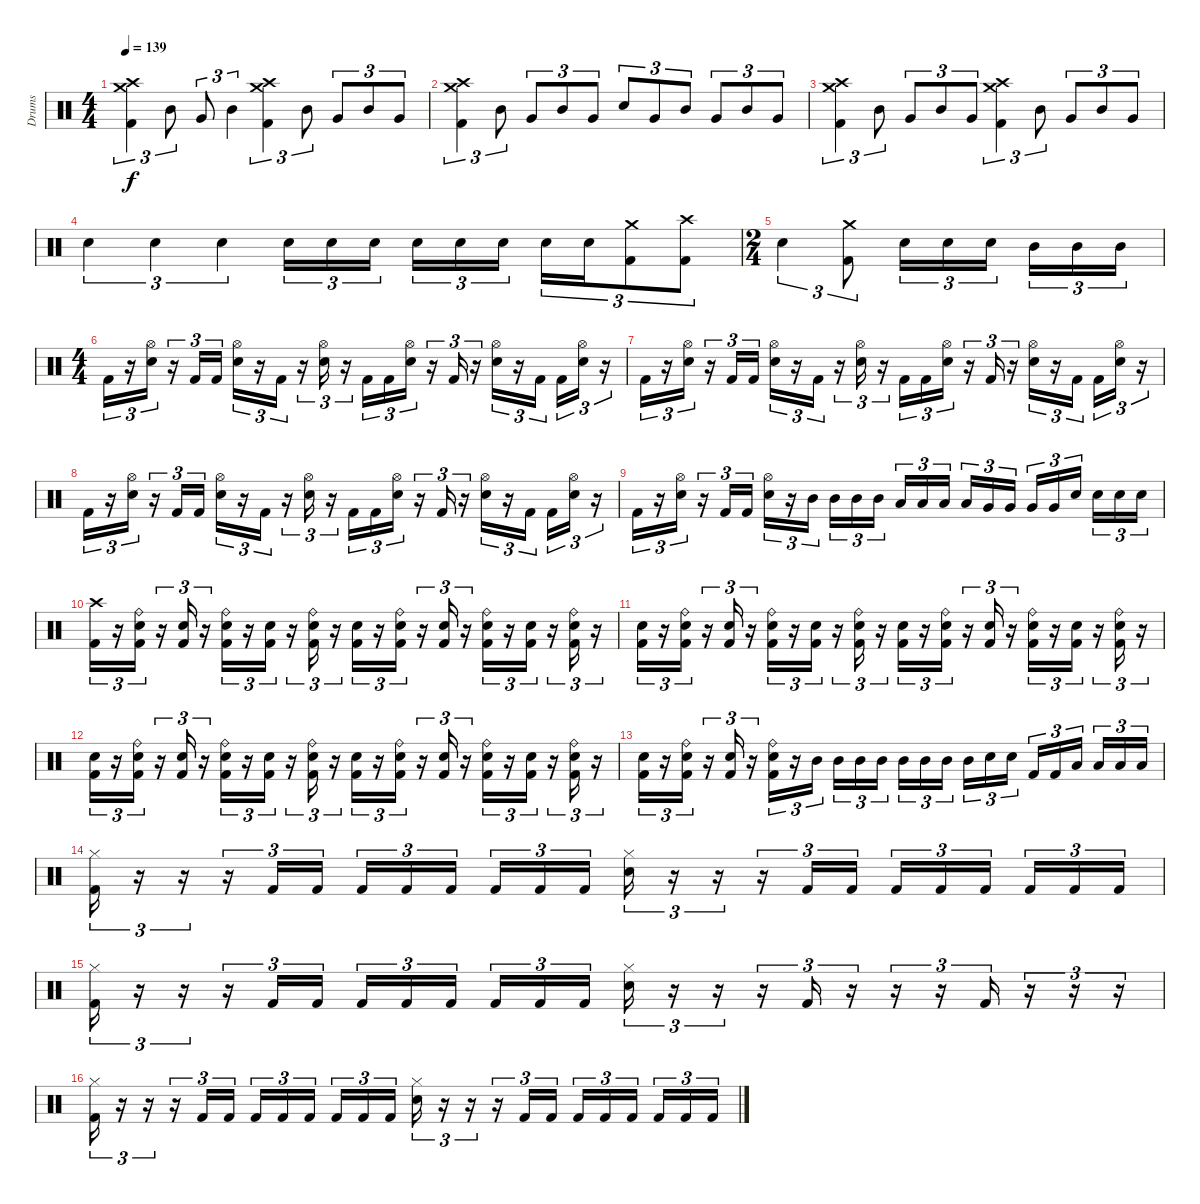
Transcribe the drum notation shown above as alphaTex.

\track ("Drums" "Drums") {instrument percussion}
\staff {score}
\articulation defaults
\ts (4 4)
\tempo 139
\clef neutral
\ks c
("Kick (hit) 2" "Crash high (hit)" "Crash medium (hit)").4{tu (3 2) dy f} "Mid Tom (hit)".8{tu (3 2)} "Very Low Tom (hit)".8{tu (3 2)} "Mid Tom (hit)".4{tu (3 2)} ("Kick (hit) 2" "Crash high (hit)" "Crash medium (hit)").4{tu (3 2)} "Mid Tom (hit)".8{tu (3 2)} "Very Low Tom (hit)".8{tu (3 2)} "Mid Tom (hit)".8{tu (3 2)} "Very Low Tom (hit)".8{tu (3 2)} |
("Kick (hit) 2" "Crash high (hit)" "Crash medium (hit)").4{tu (3 2)} "Mid Tom (hit)".8{tu (3 2)} "Very Low Tom (hit)".8{tu (3 2)} "Mid Tom (hit)".8{tu (3 2)} "Very Low Tom (hit)".8{tu (3 2)} "Snare (hit) 2".8{tu (3 2)} "Very Low Tom (hit)".8{tu (3 2)} "Mid Tom (hit)".8{tu (3 2)} "Very Low Tom (hit)".8{tu (3 2)} "Mid Tom (hit)".8{tu (3 2)} "Very Low Tom (hit)".8{tu (3 2)} |
("Kick (hit) 2" "Crash high (hit)" "Crash medium (hit)").4{tu (3 2)} "Mid Tom (hit)".8{tu (3 2)} "Very Low Tom (hit)".8{tu (3 2)} "Mid Tom (hit)".8{tu (3 2)} "Very Low Tom (hit)".8{tu (3 2)} ("Kick (hit) 2" "Crash high (hit)" "Crash medium (hit)").4{tu (3 2)} "Mid Tom (hit)".8{tu (3 2)} "Very Low Tom (hit)".8{tu (3 2)} "Mid Tom (hit)".8{tu (3 2)} "Very Low Tom (hit)".8{tu (3 2)} |
"Snare (hit) 2".4{tu (3 2)} "Snare (hit) 2".4{tu (3 2)} "Snare (hit) 2".4{tu (3 2)} "Snare (hit) 2".16{tu (3 2)} "Snare (hit) 2".16{tu (3 2)} "Snare (hit) 2".16{tu (3 2) beam splitsecondary} "Snare (hit) 2".16{tu (3 2)} "Snare (hit) 2".16{tu (3 2)} "Snare (hit) 2".16{tu (3 2)} "Snare (hit) 2".16{tu (3 2)} "Snare (hit) 2".16{tu (3 2)} ("Kick (hit) 2" "Crash medium (hit)").8{tu (3 2)} ("Kick (hit) 2" "Crash high (hit)").8{tu (3 2)} |
\ts (2 4)
"Snare (hit) 2".4{tu (3 2)} ("Kick (hit) 2" "Crash medium (hit)").8{tu (3 2)} "Snare (hit) 2".16{tu (3 2)} "Snare (hit) 2".16{tu (3 2)} "Snare (hit) 2".16{tu (3 2) beam splitsecondary} "Mid Tom (hit)".16{tu (3 2)} "Mid Tom (hit)".16{tu (3 2)} "Mid Tom (hit)".16{tu (3 2)} |
\ts (4 4)
"Kick (hit) 2".16{tu (3 2)} r.16{tu (3 2)} ("Snare (hit) 2" "Hi-Hat (open)").16{tu (3 2)} r.16{tu (3 2)} "Kick (hit) 2".16{tu (3 2)} "Kick (hit) 2".16{tu (3 2)} ("Snare (hit) 2" "Hi-Hat (open)").16{tu (3 2)} r.16{tu (3 2)} "Kick (hit) 2".16{tu (3 2)} r.16{tu (3 2)} ("Snare (hit) 2" "Hi-Hat (open)").16{tu (3 2)} r.16{tu (3 2)} "Kick (hit) 2".16{tu (3 2)} "Kick (hit) 2".16{tu (3 2)} ("Snare (hit) 2" "Hi-Hat (open)").16{tu (3 2)} r.16{tu (3 2)} "Kick (hit) 2".16{tu (3 2)} r.16{tu (3 2)} ("Snare (hit) 2" "Hi-Hat (open)").16{tu (3 2)} r.16{tu (3 2)} "Kick (hit) 2".16{tu (3 2) beam splitsecondary} "Kick (hit) 2".16{tu (3 2)} ("Snare (hit) 2" "Hi-Hat (open)").16{tu (3 2)} r.16{tu (3 2)} |
"Kick (hit) 2".16{tu (3 2)} r.16{tu (3 2)} ("Snare (hit) 2" "Hi-Hat (open)").16{tu (3 2)} r.16{tu (3 2)} "Kick (hit) 2".16{tu (3 2)} "Kick (hit) 2".16{tu (3 2)} ("Snare (hit) 2" "Hi-Hat (open)").16{tu (3 2)} r.16{tu (3 2)} "Kick (hit) 2".16{tu (3 2)} r.16{tu (3 2)} ("Snare (hit) 2" "Hi-Hat (open)").16{tu (3 2)} r.16{tu (3 2)} "Kick (hit) 2".16{tu (3 2)} "Kick (hit) 2".16{tu (3 2)} ("Snare (hit) 2" "Hi-Hat (open)").16{tu (3 2)} r.16{tu (3 2)} "Kick (hit) 2".16{tu (3 2)} r.16{tu (3 2)} ("Snare (hit) 2" "Hi-Hat (open)").16{tu (3 2)} r.16{tu (3 2)} "Kick (hit) 2".16{tu (3 2) beam splitsecondary} "Kick (hit) 2".16{tu (3 2)} ("Snare (hit) 2" "Hi-Hat (open)").16{tu (3 2)} r.16{tu (3 2)} |
"Kick (hit) 2".16{tu (3 2)} r.16{tu (3 2)} ("Snare (hit) 2" "Hi-Hat (open)").16{tu (3 2)} r.16{tu (3 2)} "Kick (hit) 2".16{tu (3 2)} "Kick (hit) 2".16{tu (3 2)} ("Snare (hit) 2" "Hi-Hat (open)").16{tu (3 2)} r.16{tu (3 2)} "Kick (hit) 2".16{tu (3 2)} r.16{tu (3 2)} ("Snare (hit) 2" "Hi-Hat (open)").16{tu (3 2)} r.16{tu (3 2)} "Kick (hit) 2".16{tu (3 2)} "Kick (hit) 2".16{tu (3 2)} ("Snare (hit) 2" "Hi-Hat (open)").16{tu (3 2)} r.16{tu (3 2)} "Kick (hit) 2".16{tu (3 2)} r.16{tu (3 2)} ("Snare (hit) 2" "Hi-Hat (open)").16{tu (3 2)} r.16{tu (3 2)} "Kick (hit) 2".16{tu (3 2) beam splitsecondary} "Kick (hit) 2".16{tu (3 2)} ("Snare (hit) 2" "Hi-Hat (open)").16{tu (3 2)} r.16{tu (3 2)} |
"Kick (hit) 2".16{tu (3 2)} r.16{tu (3 2)} ("Snare (hit) 2" "Hi-Hat (open)").16{tu (3 2)} r.16{tu (3 2)} "Kick (hit) 2".16{tu (3 2)} "Kick (hit) 2".16{tu (3 2)} ("Snare (hit) 2" "Hi-Hat (open)").16{tu (3 2)} r.16{tu (3 2)} "Mid Tom (hit)".16{tu (3 2) beam splitsecondary} "Mid Tom (hit)".16{tu (3 2)} "Mid Tom (hit)".16{tu (3 2)} "Mid Tom (hit)".16{tu (3 2)} "Low Tom (hit)".16{tu (3 2)} "Low Tom (hit)".16{tu (3 2)} "Low Tom (hit)".16{tu (3 2) beam splitsecondary} "Low Tom (hit)".16{tu (3 2)} "Very Low Tom (hit)".16{tu (3 2)} "Very Low Tom (hit)".16{tu (3 2)} "Very Low Tom (hit)".16{tu (3 2)} "Very Low Tom (hit)".16{tu (3 2)} "Snare (hit) 2".16{tu (3 2) beam splitsecondary} "Snare (hit) 2".16{tu (3 2)} "Snare (hit) 2".16{tu (3 2)} "Snare (hit) 2".16{tu (3 2)} |
("Kick (hit) 2" "Crash high (hit)").16{tu (3 2)} r.16{tu (3 2)} ("Kick (hit) 2" "Snare (hit) 2" "Ride (bell)").16{tu (3 2)} r.16{tu (3 2)} ("Kick (hit) 2" "Snare (hit) 2").16{tu (3 2)} r.16{tu (3 2)} ("Kick (hit) 2" "Snare (hit) 2" "Ride (bell)").16{tu (3 2)} r.16{tu (3 2)} ("Kick (hit) 2" "Snare (hit) 2").16{tu (3 2)} r.16{tu (3 2)} ("Kick (hit) 2" "Snare (hit) 2" "Ride (bell)").16{tu (3 2)} r.16{tu (3 2)} ("Kick (hit) 2" "Snare (hit) 2").16{tu (3 2)} r.16{tu (3 2)} ("Kick (hit) 2" "Snare (hit) 2" "Ride (bell)").16{tu (3 2)} r.16{tu (3 2)} ("Kick (hit) 2" "Snare (hit) 2").16{tu (3 2)} r.16{tu (3 2)} ("Kick (hit) 2" "Snare (hit) 2" "Ride (bell)").16{tu (3 2)} r.16{tu (3 2)} ("Kick (hit) 2" "Snare (hit) 2").16{tu (3 2)} r.16{tu (3 2)} ("Kick (hit) 2" "Snare (hit) 2" "Ride (bell)").16{tu (3 2)} r.16{tu (3 2)} |
("Kick (hit) 2" "Snare (hit) 2").16{tu (3 2)} r.16{tu (3 2)} ("Kick (hit) 2" "Snare (hit) 2" "Ride (bell)").16{tu (3 2)} r.16{tu (3 2)} ("Kick (hit) 2" "Snare (hit) 2").16{tu (3 2)} r.16{tu (3 2)} ("Kick (hit) 2" "Snare (hit) 2" "Ride (bell)").16{tu (3 2)} r.16{tu (3 2)} ("Kick (hit) 2" "Snare (hit) 2").16{tu (3 2)} r.16{tu (3 2)} ("Kick (hit) 2" "Snare (hit) 2" "Ride (bell)").16{tu (3 2)} r.16{tu (3 2)} ("Kick (hit) 2" "Snare (hit) 2").16{tu (3 2)} r.16{tu (3 2)} ("Kick (hit) 2" "Snare (hit) 2" "Ride (bell)").16{tu (3 2)} r.16{tu (3 2)} ("Kick (hit) 2" "Snare (hit) 2").16{tu (3 2)} r.16{tu (3 2)} ("Kick (hit) 2" "Snare (hit) 2" "Ride (bell)").16{tu (3 2)} r.16{tu (3 2)} ("Kick (hit) 2" "Snare (hit) 2").16{tu (3 2)} r.16{tu (3 2)} ("Kick (hit) 2" "Snare (hit) 2" "Ride (bell)").16{tu (3 2)} r.16{tu (3 2)} |
("Kick (hit) 2" "Snare (hit) 2").16{tu (3 2)} r.16{tu (3 2)} ("Kick (hit) 2" "Snare (hit) 2" "Ride (bell)").16{tu (3 2)} r.16{tu (3 2)} ("Kick (hit) 2" "Snare (hit) 2").16{tu (3 2)} r.16{tu (3 2)} ("Kick (hit) 2" "Snare (hit) 2" "Ride (bell)").16{tu (3 2)} r.16{tu (3 2)} ("Kick (hit) 2" "Snare (hit) 2").16{tu (3 2)} r.16{tu (3 2)} ("Kick (hit) 2" "Snare (hit) 2" "Ride (bell)").16{tu (3 2)} r.16{tu (3 2)} ("Kick (hit) 2" "Snare (hit) 2").16{tu (3 2)} r.16{tu (3 2)} ("Kick (hit) 2" "Snare (hit) 2" "Ride (bell)").16{tu (3 2)} r.16{tu (3 2)} ("Kick (hit) 2" "Snare (hit) 2").16{tu (3 2)} r.16{tu (3 2)} ("Kick (hit) 2" "Snare (hit) 2" "Ride (bell)").16{tu (3 2)} r.16{tu (3 2)} ("Kick (hit) 2" "Snare (hit) 2").16{tu (3 2)} r.16{tu (3 2)} ("Kick (hit) 2" "Snare (hit) 2" "Ride (bell)").16{tu (3 2)} r.16{tu (3 2)} |
("Kick (hit) 2" "Snare (hit) 2").16{tu (3 2)} r.16{tu (3 2)} ("Kick (hit) 2" "Snare (hit) 2" "Ride (bell)").16{tu (3 2)} r.16{tu (3 2)} ("Kick (hit) 2" "Snare (hit) 2").16{tu (3 2)} r.16{tu (3 2)} ("Kick (hit) 2" "Snare (hit) 2" "Ride (bell)").16{tu (3 2)} r.16{tu (3 2)} "Mid Tom (hit)".16{tu (3 2) beam splitsecondary} "Mid Tom (hit)".16{tu (3 2)} "Mid Tom (hit)".16{tu (3 2)} "Mid Tom (hit)".16{tu (3 2)} "Mid Tom (hit)".16{tu (3 2)} "Mid Tom (hit)".16{tu (3 2)} "Mid Tom (hit)".16{tu (3 2) beam splitsecondary} "Mid Tom (hit)".16{tu (3 2)} "Snare (hit) 2".16{tu (3 2)} "Snare (hit) 2".16{tu (3 2)} "Kick (hit) 2".16{tu (3 2)} "Kick (hit) 2".16{tu (3 2)} "Low Tom (hit)".16{tu (3 2) beam splitsecondary} "Low Tom (hit)".16{tu (3 2)} "Low Tom (hit)".16{tu (3 2)} "Low Tom (hit)".16{tu (3 2)} |
("Kick (hit) 2" "Hi-Hat (closed)").16{tu (3 2)} r.16{tu (3 2)} r.16{tu (3 2)} r.16{tu (3 2)} "Kick (hit) 2".16{tu (3 2)} "Kick (hit) 2".16{tu (3 2)} "Kick (hit) 2".16{tu (3 2)} "Kick (hit) 2".16{tu (3 2)} "Kick (hit) 2".16{tu (3 2) beam splitsecondary} "Kick (hit) 2".16{tu (3 2)} "Kick (hit) 2".16{tu (3 2)} "Kick (hit) 2".16{tu (3 2)} ("Snare (hit) 2" "Hi-Hat (closed)").16{tu (3 2)} r.16{tu (3 2)} r.16{tu (3 2)} r.16{tu (3 2)} "Kick (hit) 2".16{tu (3 2)} "Kick (hit) 2".16{tu (3 2)} "Kick (hit) 2".16{tu (3 2)} "Kick (hit) 2".16{tu (3 2)} "Kick (hit) 2".16{tu (3 2) beam splitsecondary} "Kick (hit) 2".16{tu (3 2)} "Kick (hit) 2".16{tu (3 2)} "Kick (hit) 2".16{tu (3 2)} |
("Kick (hit) 2" "Hi-Hat (closed)").16{tu (3 2)} r.16{tu (3 2)} r.16{tu (3 2)} r.16{tu (3 2)} "Kick (hit) 2".16{tu (3 2)} "Kick (hit) 2".16{tu (3 2)} "Kick (hit) 2".16{tu (3 2)} "Kick (hit) 2".16{tu (3 2)} "Kick (hit) 2".16{tu (3 2) beam splitsecondary} "Kick (hit) 2".16{tu (3 2)} "Kick (hit) 2".16{tu (3 2)} "Kick (hit) 2".16{tu (3 2)} ("Snare (hit) 2" "Hi-Hat (closed)").16{tu (3 2)} r.16{tu (3 2)} r.16{tu (3 2)} r.16{tu (3 2)} "Kick (hit) 2".16{tu (3 2)} r.16{tu (3 2)} r.16{tu (3 2)} r.16{tu (3 2)} "Kick (hit) 2".16{tu (3 2)} r.16{tu (3 2)} r.16{tu (3 2)} r.16{tu (3 2)} |
("Kick (hit) 2" "Hi-Hat (closed)").16{tu (3 2)} r.16{tu (3 2)} r.16{tu (3 2)} r.16{tu (3 2)} "Kick (hit) 2".16{tu (3 2)} "Kick (hit) 2".16{tu (3 2)} "Kick (hit) 2".16{tu (3 2)} "Kick (hit) 2".16{tu (3 2)} "Kick (hit) 2".16{tu (3 2) beam splitsecondary} "Kick (hit) 2".16{tu (3 2)} "Kick (hit) 2".16{tu (3 2)} "Kick (hit) 2".16{tu (3 2)} ("Snare (hit) 2" "Hi-Hat (closed)").16{tu (3 2)} r.16{tu (3 2)} r.16{tu (3 2)} r.16{tu (3 2)} "Kick (hit) 2".16{tu (3 2)} "Kick (hit) 2".16{tu (3 2)} "Kick (hit) 2".16{tu (3 2)} "Kick (hit) 2".16{tu (3 2)} "Kick (hit) 2".16{tu (3 2) beam splitsecondary} "Kick (hit) 2".16{tu (3 2)} "Kick (hit) 2".16{tu (3 2)} "Kick (hit) 2".16{tu (3 2)}
